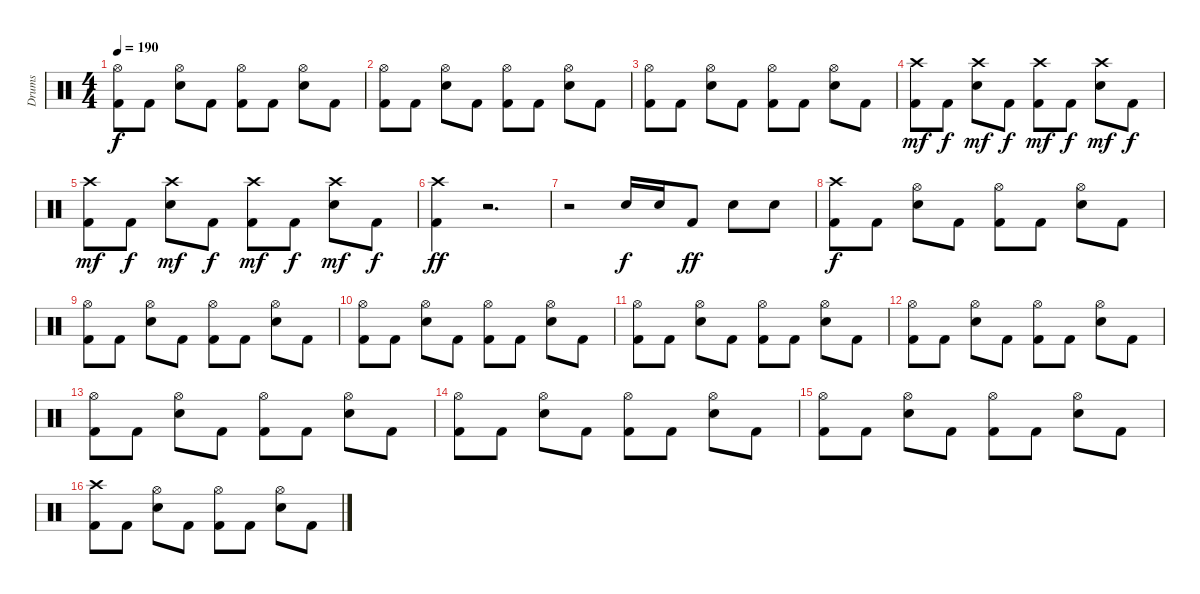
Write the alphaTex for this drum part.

\track ("Drums" "Drums") {instrument percussion}
\staff {score}
\articulation defaults
\ts (4 4)
\tempo 190
\clef neutral
\ks c
("Kick (hit) 2" "Hi-Hat (open)").8{dy f} "Kick (hit) 2".8 ("Snare (hit) 2" "Hi-Hat (open)").8 "Kick (hit) 2".8 ("Kick (hit) 2" "Hi-Hat (open)").8 "Kick (hit) 2".8 ("Snare (hit) 2" "Hi-Hat (open)").8 "Kick (hit) 2".8 |
("Kick (hit) 2" "Hi-Hat (open)").8 "Kick (hit) 2".8 ("Snare (hit) 2" "Hi-Hat (open)").8 "Kick (hit) 2".8 ("Kick (hit) 2" "Hi-Hat (open)").8 "Kick (hit) 2".8 ("Snare (hit) 2" "Hi-Hat (open)").8 "Kick (hit) 2".8 |
("Kick (hit) 2" "Hi-Hat (open)").8 "Kick (hit) 2".8 ("Snare (hit) 2" "Hi-Hat (open)").8 "Kick (hit) 2".8 ("Kick (hit) 2" "Hi-Hat (open)").8 "Kick (hit) 2".8 ("Snare (hit) 2" "Hi-Hat (open)").8 "Kick (hit) 2".8 |
("Kick (hit) 2" "Crash high (hit)").8{dy mf} "Kick (hit) 2".8{dy f} ("Snare (hit) 2" "Crash high (hit)").8{dy mf} "Kick (hit) 2".8{dy f} ("Kick (hit) 2" "Crash high (hit)").8{dy mf} "Kick (hit) 2".8{dy f} ("Snare (hit) 2" "Crash high (hit)").8{dy mf} "Kick (hit) 2".8{dy f} |
("Kick (hit) 2" "Crash high (hit)").8{dy mf} "Kick (hit) 2".8{dy f} ("Snare (hit) 2" "Crash high (hit)").8{dy mf} "Kick (hit) 2".8{dy f} ("Kick (hit) 2" "Crash high (hit)").8{dy mf} "Kick (hit) 2".8{dy f} ("Snare (hit) 2" "Crash high (hit)").8{dy mf} "Kick (hit) 2".8{dy f} |
("Kick (hit) 2" "Crash high (hit)").4{dy ff} r.2{d} |
r.2 "Snare (hit) 2".16{dy f} "Snare (hit) 2".16 "Kick (hit) 2".8{dy ff} "Snare (hit) 2".8 "Snare (hit) 2".8 |
("Kick (hit) 2" "Crash high (hit)").8{dy f} "Kick (hit) 2".8 ("Snare (hit) 2" "Hi-Hat (open)").8 "Kick (hit) 2".8 ("Kick (hit) 2" "Hi-Hat (open)").8 "Kick (hit) 2".8 ("Snare (hit) 2" "Hi-Hat (open)").8 "Kick (hit) 2".8 |
("Kick (hit) 2" "Hi-Hat (open)").8 "Kick (hit) 2".8 ("Snare (hit) 2" "Hi-Hat (open)").8 "Kick (hit) 2".8 ("Kick (hit) 2" "Hi-Hat (open)").8 "Kick (hit) 2".8 ("Snare (hit) 2" "Hi-Hat (open)").8 "Kick (hit) 2".8 |
("Kick (hit) 2" "Hi-Hat (open)").8 "Kick (hit) 2".8 ("Snare (hit) 2" "Hi-Hat (open)").8 "Kick (hit) 2".8 ("Kick (hit) 2" "Hi-Hat (open)").8 "Kick (hit) 2".8 ("Snare (hit) 2" "Hi-Hat (open)").8 "Kick (hit) 2".8 |
("Kick (hit) 2" "Hi-Hat (open)").8 "Kick (hit) 2".8 ("Snare (hit) 2" "Hi-Hat (open)").8 "Kick (hit) 2".8 ("Kick (hit) 2" "Hi-Hat (open)").8 "Kick (hit) 2".8 ("Snare (hit) 2" "Hi-Hat (open)").8 "Kick (hit) 2".8 |
("Kick (hit) 2" "Hi-Hat (open)").8 "Kick (hit) 2".8 ("Snare (hit) 2" "Hi-Hat (open)").8 "Kick (hit) 2".8 ("Kick (hit) 2" "Hi-Hat (open)").8 "Kick (hit) 2".8 ("Snare (hit) 2" "Hi-Hat (open)").8 "Kick (hit) 2".8 |
("Kick (hit) 2" "Hi-Hat (open)").8 "Kick (hit) 2".8 ("Snare (hit) 2" "Hi-Hat (open)").8 "Kick (hit) 2".8 ("Kick (hit) 2" "Hi-Hat (open)").8 "Kick (hit) 2".8 ("Snare (hit) 2" "Hi-Hat (open)").8 "Kick (hit) 2".8 |
("Kick (hit) 2" "Hi-Hat (open)").8 "Kick (hit) 2".8 ("Snare (hit) 2" "Hi-Hat (open)").8 "Kick (hit) 2".8 ("Kick (hit) 2" "Hi-Hat (open)").8 "Kick (hit) 2".8 ("Snare (hit) 2" "Hi-Hat (open)").8 "Kick (hit) 2".8 |
("Kick (hit) 2" "Hi-Hat (open)").8 "Kick (hit) 2".8 ("Snare (hit) 2" "Hi-Hat (open)").8 "Kick (hit) 2".8 ("Kick (hit) 2" "Hi-Hat (open)").8 "Kick (hit) 2".8 ("Snare (hit) 2" "Hi-Hat (open)").8 "Kick (hit) 2".8 |
("Kick (hit) 2" "Crash high (hit)").8 "Kick (hit) 2".8 ("Snare (hit) 2" "Hi-Hat (open)").8 "Kick (hit) 2".8 ("Kick (hit) 2" "Hi-Hat (open)").8 "Kick (hit) 2".8 ("Snare (hit) 2" "Hi-Hat (open)").8 "Kick (hit) 2".8
